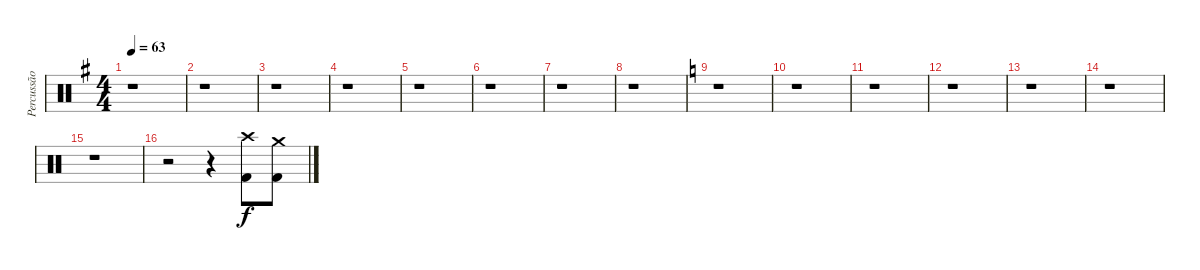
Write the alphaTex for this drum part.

\track ("Percussão" "Percussão") {instrument percussion}
\staff {score}
\articulation defaults
\ts (4 4)
\tempo 63
\clef neutral
\ks g
r.1{dy f} |
r.1 |
r.1 |
r.1 |
r.1 |
r.1 |
r.1 |
r.1 |
\ks c
r.1 |
r.1 |
r.1 |
r.1 |
r.1 |
r.1 |
r.1 |
r.2 r.4 ("Crash high (hit)" "Kick (hit) 2").8 ("Crash medium (hit)" "Kick (hit) 2").8
